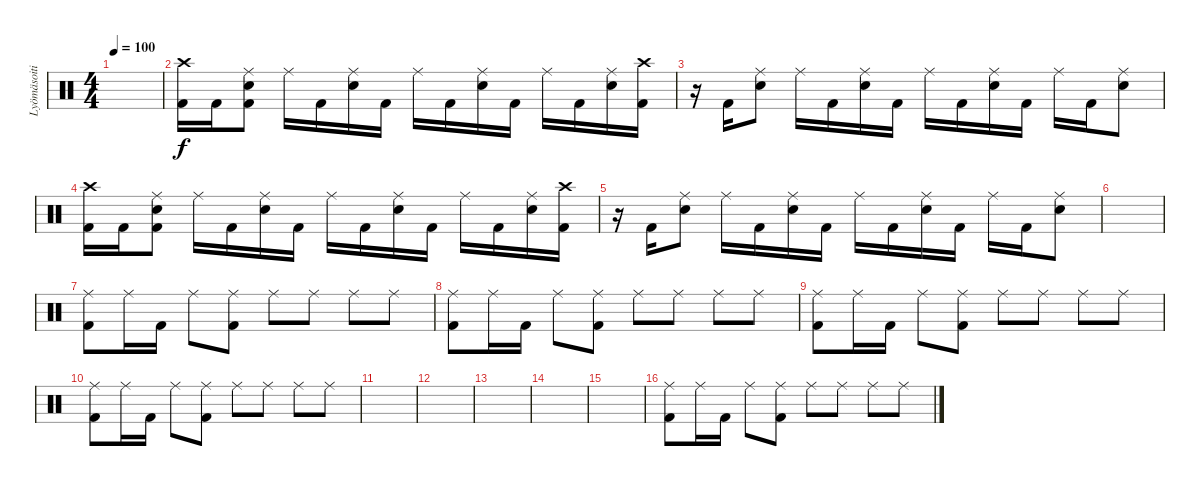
\track ("Lyömäsoitin" "Lyömäsoiti") {instrument percussion}
\staff {score}
\articulation defaults
\ts (4 4)
\tempo 100
\clef neutral
\ks c
|
("Crash high (hit)" "Kick (hit) 2").16 "Kick (hit) 2".16 ("Ride (middle)" "Snare (hit) 2" "Kick (hit) 2").8 "Ride (middle)".16 "Kick (hit) 2".16 ("Ride (middle)" "Snare (hit) 2").16 "Kick (hit) 2".16 "Ride (middle)".16 "Kick (hit) 2".16 ("Ride (middle)" "Snare (hit) 2").16 "Kick (hit) 2".16 "Ride (middle)".16 "Kick (hit) 2".16 ("Ride (middle)" "Snare (hit) 2").16 ("Crash high (hit)" "Kick (hit) 2").16 |
r.16 "Kick (hit) 2".16 ("Ride (middle)" "Snare (hit) 2").8 "Ride (middle)".16 "Kick (hit) 2".16 ("Ride (middle)" "Snare (hit) 2").16 "Kick (hit) 2".16 "Ride (middle)".16 "Kick (hit) 2".16 ("Ride (middle)" "Snare (hit) 2").16 "Kick (hit) 2".16 "Ride (middle)".16 "Kick (hit) 2".16 ("Ride (middle)" "Snare (hit) 2").8 |
("Crash high (hit)" "Kick (hit) 2").16 "Kick (hit) 2".16 ("Ride (middle)" "Snare (hit) 2" "Kick (hit) 2").8 "Ride (middle)".16 "Kick (hit) 2".16 ("Ride (middle)" "Snare (hit) 2").16 "Kick (hit) 2".16 "Ride (middle)".16 "Kick (hit) 2".16 ("Ride (middle)" "Snare (hit) 2").16 "Kick (hit) 2".16 "Ride (middle)".16 "Kick (hit) 2".16 ("Ride (middle)" "Snare (hit) 2").16 ("Crash high (hit)" "Kick (hit) 2").16 |
r.16 "Kick (hit) 2".16 ("Ride (middle)" "Snare (hit) 2").8 "Ride (middle)".16 "Kick (hit) 2".16 ("Ride (middle)" "Snare (hit) 2").16 "Kick (hit) 2".16 "Ride (middle)".16 "Kick (hit) 2".16 ("Ride (middle)" "Snare (hit) 2").16 "Kick (hit) 2".16 "Ride (middle)".16 "Kick (hit) 2".16 ("Ride (middle)" "Snare (hit) 2").8 |
|
("Ride (middle)" "Kick (hit) 2").8 "Ride (middle)".16 "Kick (hit) 2".16 "Ride (middle)".8 ("Ride (middle)" "Kick (hit) 2").8 "Ride (middle)".8 "Ride (middle)".8 "Ride (middle)".8 "Ride (middle)".8 |
("Ride (middle)" "Kick (hit) 2").8 "Ride (middle)".16 "Kick (hit) 2".16 "Ride (middle)".8 ("Ride (middle)" "Kick (hit) 2").8 "Ride (middle)".8 "Ride (middle)".8 "Ride (middle)".8 "Ride (middle)".8 |
("Ride (middle)" "Kick (hit) 2").8 "Ride (middle)".16 "Kick (hit) 2".16 "Ride (middle)".8 ("Ride (middle)" "Kick (hit) 2").8 "Ride (middle)".8 "Ride (middle)".8 "Ride (middle)".8 "Ride (middle)".8 |
("Ride (middle)" "Kick (hit) 2").8 "Ride (middle)".16 "Kick (hit) 2".16 "Ride (middle)".8 ("Ride (middle)" "Kick (hit) 2").8 "Ride (middle)".8 "Ride (middle)".8 "Ride (middle)".8 "Ride (middle)".8 |
|
|
|
|
|
("Ride (middle)" "Kick (hit) 2").8 "Ride (middle)".16 "Kick (hit) 2".16 "Ride (middle)".8 ("Ride (middle)" "Kick (hit) 2").8 "Ride (middle)".8 "Ride (middle)".8 "Ride (middle)".8 "Ride (middle)".8
